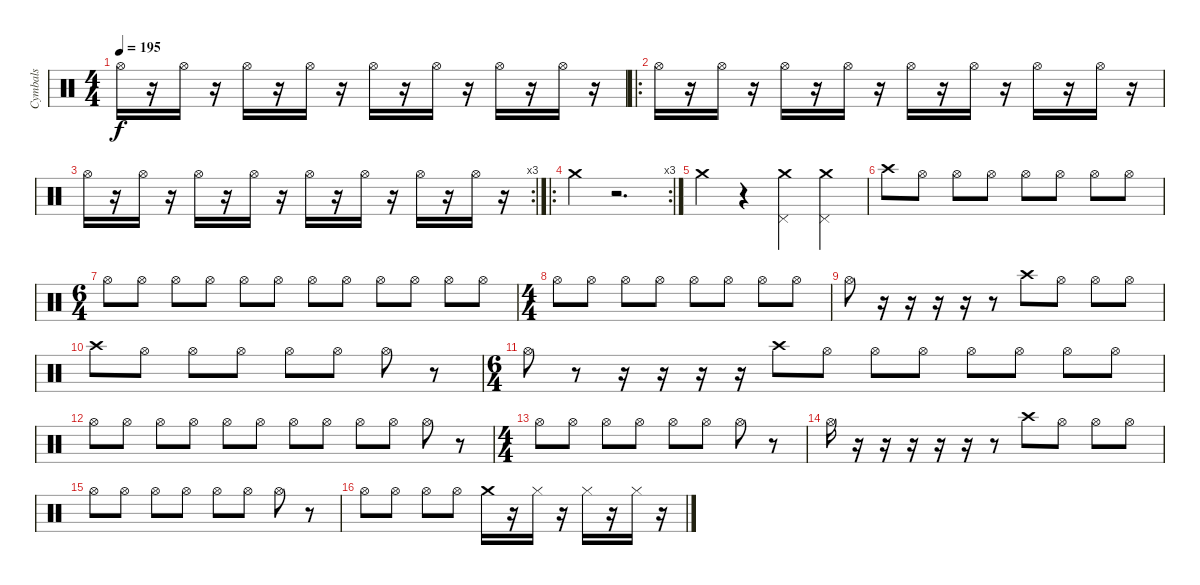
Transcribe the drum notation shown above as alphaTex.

\track ("Cymbals" "Cymbals") {instrument percussion}
\staff {score}
\articulation defaults
\ts (4 4)
\tempo 195
\clef neutral
\ks c "Hi-Hat (open)".16{dy f}
r.16 "Hi-Hat (open)".16 r.16 "Hi-Hat (open)".16 r.16 "Hi-Hat (open)".16 r.16 "Hi-Hat (open)".16 r.16 "Hi-Hat (open)".16 r.16 "Hi-Hat (open)".16 r.16 "Hi-Hat (open)".16 r.16 |
\ro "Hi-Hat (open)".16
r.16 "Hi-Hat (open)".16 r.16 "Hi-Hat (open)".16 r.16 "Hi-Hat (open)".16 r.16 "Hi-Hat (open)".16 r.16 "Hi-Hat (open)".16 r.16 "Hi-Hat (open)".16 r.16 "Hi-Hat (open)".16 r.16 |
\rc 3 "Hi-Hat (open)".16
r.16 "Hi-Hat (open)".16 r.16 "Hi-Hat (open)".16 r.16 "Hi-Hat (open)".16 r.16 "Hi-Hat (open)".16 r.16 "Hi-Hat (open)".16 r.16 "Hi-Hat (open)".16 r.16 "Hi-Hat (open)".16 r.16 |
\ro
\rc 3 "Crash medium (hit)".4
r.2{d} |
"Crash medium (hit)".4 r.4 ("Pedal Hi-Hat (hit)" "Crash medium (hit)").4 ("Pedal Hi-Hat (hit)" "Crash medium (hit)").4 |
"Crash high (hit)".8 "Hi-Hat (open)".8 "Hi-Hat (open)".8 "Hi-Hat (open)".8 "Hi-Hat (open)".8 "Hi-Hat (open)".8 "Hi-Hat (open)".8 "Hi-Hat (open)".8 |
\ts (6 4)
"Hi-Hat (open)".8 "Hi-Hat (open)".8 "Hi-Hat (open)".8 "Hi-Hat (open)".8 "Hi-Hat (open)".8 "Hi-Hat (open)".8 "Hi-Hat (open)".8 "Hi-Hat (open)".8 "Hi-Hat (open)".8 "Hi-Hat (open)".8 "Hi-Hat (open)".8 "Hi-Hat (open)".8 |
\ts (4 4)
"Hi-Hat (open)".8 "Hi-Hat (open)".8 "Hi-Hat (open)".8 "Hi-Hat (open)".8 "Hi-Hat (open)".8 "Hi-Hat (open)".8 "Hi-Hat (open)".8 "Hi-Hat (open)".8 |
"Hi-Hat (open)".8 r.16 r.16 r.16 r.16 r.8 "Crash high (hit)".8 "Hi-Hat (open)".8 "Hi-Hat (open)".8 "Hi-Hat (open)".8 |
"Crash high (hit)".8 "Hi-Hat (open)".8 "Hi-Hat (open)".8 "Hi-Hat (open)".8 "Hi-Hat (open)".8 "Hi-Hat (open)".8 "Hi-Hat (open)".8 r.8 |
\ts (6 4)
"Hi-Hat (open)".8 r.8 r.16 r.16 r.16 r.16 "Crash high (hit)".8 "Hi-Hat (open)".8 "Hi-Hat (open)".8 "Hi-Hat (open)".8 "Hi-Hat (open)".8 "Hi-Hat (open)".8 "Hi-Hat (open)".8 "Hi-Hat (open)".8 |
"Hi-Hat (open)".8 "Hi-Hat (open)".8 "Hi-Hat (open)".8 "Hi-Hat (open)".8 "Hi-Hat (open)".8 "Hi-Hat (open)".8 "Hi-Hat (open)".8 "Hi-Hat (open)".8 "Hi-Hat (open)".8 "Hi-Hat (open)".8 "Hi-Hat (open)".8 r.8 |
\ts (4 4)
"Hi-Hat (open)".8 "Hi-Hat (open)".8 "Hi-Hat (open)".8 "Hi-Hat (open)".8 "Hi-Hat (open)".8 "Hi-Hat (open)".8 "Hi-Hat (open)".8 r.8 |
"Hi-Hat (open)".16 r.16 r.16 r.16 r.16 r.16 r.8 "Crash high (hit)".8 "Hi-Hat (open)".8 "Hi-Hat (open)".8 "Hi-Hat (open)".8 |
"Hi-Hat (open)".8 "Hi-Hat (open)".8 "Hi-Hat (open)".8 "Hi-Hat (open)".8 "Hi-Hat (open)".8 "Hi-Hat (open)".8 "Hi-Hat (open)".8 r.8 |
"Hi-Hat (open)".8 "Hi-Hat (open)".8 "Hi-Hat (open)".8 "Hi-Hat (open)".8 "Crash medium (hit)".16 r.16 "Hi-Hat (closed)".16 r.16 "Hi-Hat (closed)".16 r.16 "Hi-Hat (closed)".16 r.16
